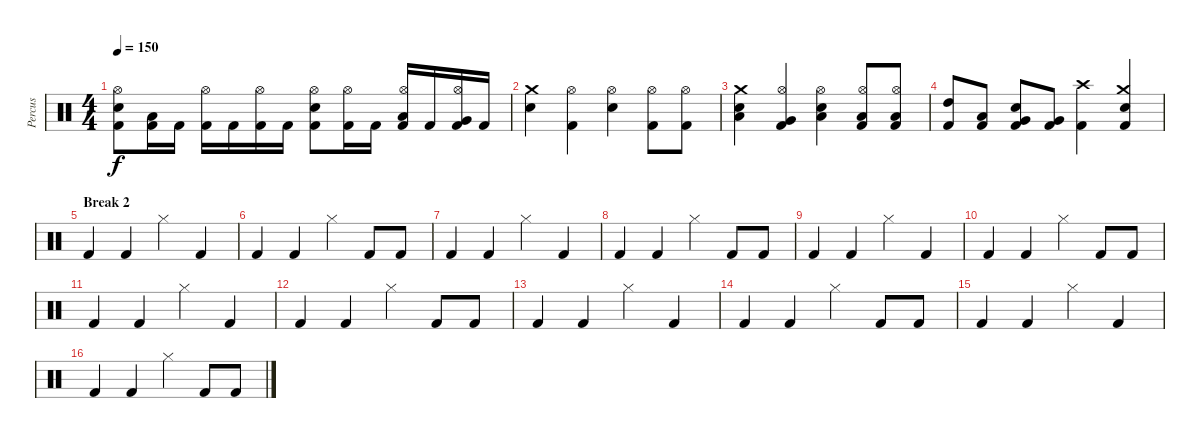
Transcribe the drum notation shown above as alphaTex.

\track ("Percus" "Percus") {instrument percussion}
\staff {score}
\articulation defaults
\ts (4 4)
\tempo 150
\clef neutral
\ks c
("Kick (hit) 2" "Snare (hit) 2" "Hi-Hat (open)").8{dy f} ("Kick (hit) 2" "Low Tom (hit)").16 "Kick (hit) 2".16 ("Kick (hit) 2" "Hi-Hat (open)").16 "Kick (hit) 2".16 ("Kick (hit) 2" "Hi-Hat (open)").16 "Kick (hit) 2".16 ("Snare (hit) 2" "Kick (hit) 2" "Hi-Hat (open)").8 ("Kick (hit) 2" "Hi-Hat (open)").16 "Kick (hit) 2".16 ("Low Tom (hit)" "Kick (hit) 2" "Hi-Hat (open)").16 "Kick (hit) 2".16 ("Very Low Tom (hit)" "Kick (hit) 2" "Hi-Hat (open)").16 "Kick (hit) 2".16 |
("Crash medium (hit)" "Snare (hit) 2").4 ("Hi-Hat (open)" "Kick (hit) 2").4 ("Hi-Hat (open)" "Snare (hit) 2").4 ("Hi-Hat (open)" "Kick (hit) 2").8 ("Hi-Hat (open)" "Kick (hit) 2").8 |
("Crash medium (hit)" "Low Tom (hit)" "Snare (hit) 2").4 ("Hi-Hat (open)" "Very Low Tom (hit)" "Kick (hit) 2").4 ("Hi-Hat (open)" "Low Floor Tom (hit)" "Snare (hit) 2").4 ("Hi-Hat (open)" "Low Floor Tom (hit)" "Kick (hit) 2").8 ("Hi-Hat (open)" "Low Floor Tom (hit)" "Kick (hit) 2").8 |
("Kick (hit) 2" "High Tom (hit)").8 ("Kick (hit) 2" "Low Tom (hit)").8 ("Kick (hit) 2" "Very Low Tom (hit)" "Electric Snare (hit)").8 ("Kick (hit) 2" "Very Low Tom (hit)").8 ("Kick (hit) 2" "Crash high (hit)").4 ("Kick (hit) 2" "Crash medium (hit)" "Electric Snare (hit)").4 |
\section ("" "Break 2")
"Kick (hit) 2".4 "Kick (hit) 2".4 "Hi-Hat (closed)".4 "Kick (hit) 2".4 |
"Kick (hit) 2".4 "Kick (hit) 2".4 "Hi-Hat (closed)".4 "Kick (hit) 2".8 "Kick (hit) 2".8 |
"Kick (hit) 2".4 "Kick (hit) 2".4 "Hi-Hat (closed)".4 "Kick (hit) 2".4 |
"Kick (hit) 2".4 "Kick (hit) 2".4 "Hi-Hat (closed)".4 "Kick (hit) 2".8 "Kick (hit) 2".8 |
"Kick (hit) 2".4 "Kick (hit) 2".4 "Hi-Hat (closed)".4 "Kick (hit) 2".4 |
"Kick (hit) 2".4 "Kick (hit) 2".4 "Hi-Hat (closed)".4 "Kick (hit) 2".8 "Kick (hit) 2".8 |
"Kick (hit) 2".4 "Kick (hit) 2".4 "Hi-Hat (closed)".4 "Kick (hit) 2".4 |
"Kick (hit) 2".4 "Kick (hit) 2".4 "Hi-Hat (closed)".4 "Kick (hit) 2".8 "Kick (hit) 2".8 |
"Kick (hit) 2".4 "Kick (hit) 2".4 "Hi-Hat (closed)".4 "Kick (hit) 2".4 |
"Kick (hit) 2".4 "Kick (hit) 2".4 "Hi-Hat (closed)".4 "Kick (hit) 2".8 "Kick (hit) 2".8 |
"Kick (hit) 2".4 "Kick (hit) 2".4 "Hi-Hat (closed)".4 "Kick (hit) 2".4 |
"Kick (hit) 2".4 "Kick (hit) 2".4 "Hi-Hat (closed)".4 "Kick (hit) 2".8 "Kick (hit) 2".8
